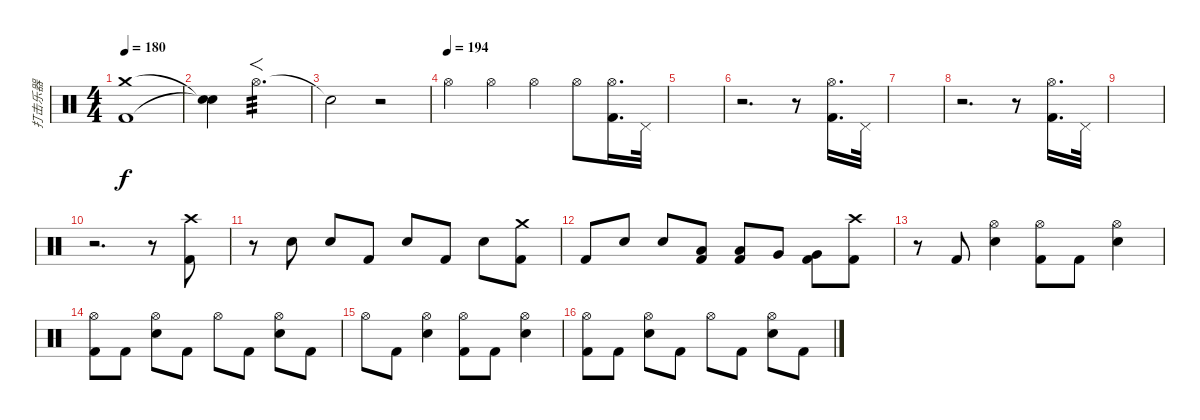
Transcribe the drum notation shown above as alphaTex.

\track ("打击乐器" "打击乐器") {instrument percussion}
\staff {score}
\articulation defaults
\ts (4 4)
\tempo 180
\clef neutral
\ks c
("Crash medium (hit)" "Kick (hit) 2").1{dy f} |
("Snare (hit)"{t} "Snare (hit)"{t}).4 "Hi-Hat (open)".2{f d tp 3} |
"Snare (hit)"{t}.2 r.2 |
\tempo (194)
"Hi-Hat (open)".4 "Hi-Hat (open)".4 "Hi-Hat (open)".4 "Hi-Hat (open)".8 ("Hi-Hat (open)" "Kick (hit) 2").16{d} "Pedal Hi-Hat (hit)".32 |
|
r.2{d} r.8 ("Hi-Hat (open)" "Kick (hit) 2").16{d} "Pedal Hi-Hat (hit)".32 |
|
r.2{d} r.8 ("Hi-Hat (open)" "Kick (hit) 2").16{d} "Pedal Hi-Hat (hit)".32 |
|
r.2{d} r.8 ("Crash high (hit)" "Kick (hit) 2").8 |
r.8 "Electric Snare (hit)".8 "Electric Snare (hit)".8 "Kick (hit) 2".8 "Electric Snare (hit)".8 "Kick (hit) 2".8 "Electric Snare (hit)".8 ("Crash medium (hit)" "Kick (hit) 2").8 |
"Kick (hit) 2".8 "Electric Snare (hit)".8 "Electric Snare (hit)".8 ("Low Tom (hit)" "Kick (hit) 2").8 ("Low Tom (hit)" "Kick (hit) 2").8 "Very Low Tom (hit)".8 ("Very Low Tom (hit)" "Kick (hit) 2").8 ("Crash high (hit)" "Kick (hit) 2").8 |
r.8 "Kick (hit) 2".8 ("Hi-Hat (open)" "Electric Snare (hit)").4 ("Hi-Hat (open)" "Kick (hit) 2").8 "Kick (hit) 2".8 ("Hi-Hat (open)" "Electric Snare (hit)").4 |
("Hi-Hat (open)" "Kick (hit) 2").8 "Kick (hit) 2".8 ("Hi-Hat (open)" "Electric Snare (hit)").8 "Kick (hit) 2".8 "Hi-Hat (open)".8 "Kick (hit) 2".8 ("Hi-Hat (open)" "Electric Snare (hit)").8 "Kick (hit) 2".8 |
"Hi-Hat (open)".8 "Kick (hit) 2".8 ("Hi-Hat (open)" "Electric Snare (hit)").4 ("Hi-Hat (open)" "Kick (hit) 2").8 "Kick (hit) 2".8 ("Hi-Hat (open)" "Electric Snare (hit)").4 |
("Hi-Hat (open)" "Kick (hit) 2").8 "Kick (hit) 2".8 ("Hi-Hat (open)" "Electric Snare (hit)").8 "Kick (hit) 2".8 "Hi-Hat (open)".8 "Kick (hit) 2".8 ("Hi-Hat (open)" "Electric Snare (hit)").8 "Kick (hit) 2".8
